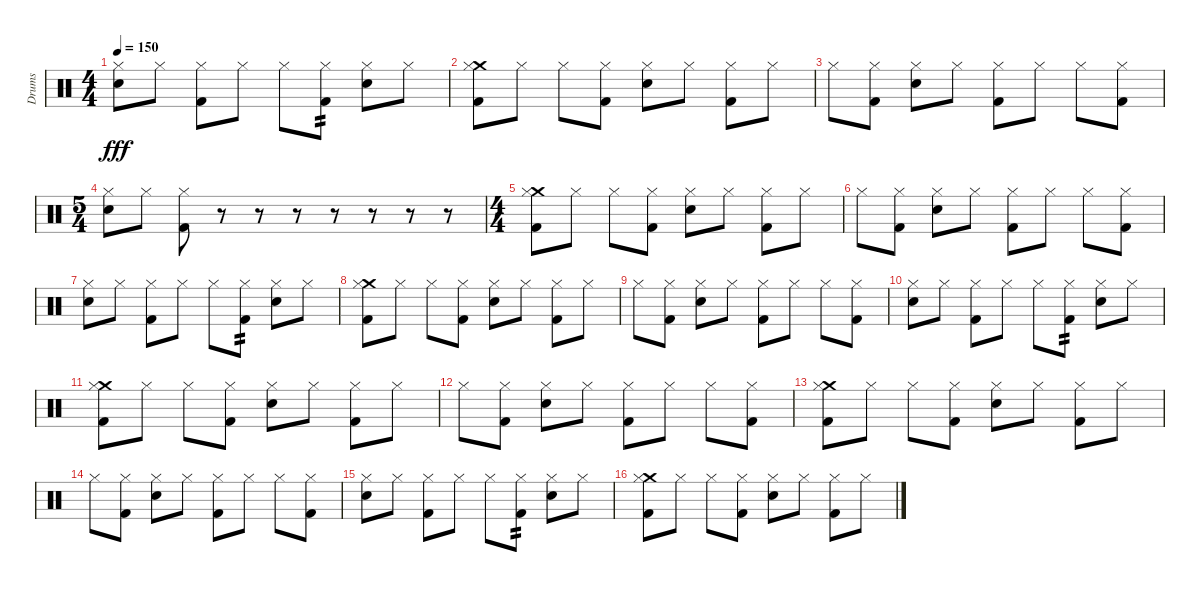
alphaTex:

\track ("Drums" "Drums") {instrument percussion}
\staff {score}
\articulation defaults
\ts (4 4)
\tempo 150
\clef neutral
\ks c
("Hi-Hat (closed)" "Electric Snare (hit)").8{dy fff} "Hi-Hat (closed)".8 ("Hi-Hat (closed)" "Kick (hit) 2").8 "Hi-Hat (closed)".8 "Hi-Hat (closed)".8 ("Hi-Hat (closed)" "Kick (hit) 2").8{tp 2} ("Hi-Hat (closed)" "Electric Snare (hit)").8 "Hi-Hat (closed)".8 |
("Crash medium (hit)" "Hi-Hat (closed)" "Kick (hit) 2").8 "Hi-Hat (closed)".8 "Hi-Hat (closed)".8 ("Hi-Hat (closed)" "Kick (hit) 2").8 ("Hi-Hat (closed)" "Electric Snare (hit)").8 "Hi-Hat (closed)".8 ("Hi-Hat (closed)" "Kick (hit) 2").8 "Hi-Hat (closed)".8 |
"Hi-Hat (closed)".8 ("Hi-Hat (closed)" "Kick (hit) 2").8 ("Hi-Hat (closed)" "Electric Snare (hit)").8 "Hi-Hat (closed)".8 ("Hi-Hat (closed)" "Kick (hit) 2").8 "Hi-Hat (closed)".8 "Hi-Hat (closed)".8 ("Hi-Hat (closed)" "Kick (hit) 2").8 |
\ts (5 4)
("Hi-Hat (closed)" "Electric Snare (hit)").8 "Hi-Hat (closed)".8 ("Hi-Hat (closed)" "Kick (hit) 2").8 r.8 r.8 r.8 r.8 r.8 r.8 r.8 |
\ts (4 4)
("Crash medium (hit)" "Hi-Hat (closed)" "Kick (hit) 2").8 "Hi-Hat (closed)".8 "Hi-Hat (closed)".8 ("Hi-Hat (closed)" "Kick (hit) 2").8 ("Hi-Hat (closed)" "Electric Snare (hit)").8 "Hi-Hat (closed)".8 ("Hi-Hat (closed)" "Kick (hit) 2").8 "Hi-Hat (closed)".8 |
"Hi-Hat (closed)".8 ("Hi-Hat (closed)" "Kick (hit) 2").8 ("Hi-Hat (closed)" "Electric Snare (hit)").8 "Hi-Hat (closed)".8 ("Hi-Hat (closed)" "Kick (hit) 2").8 "Hi-Hat (closed)".8 "Hi-Hat (closed)".8 ("Hi-Hat (closed)" "Kick (hit) 2").8 |
("Hi-Hat (closed)" "Electric Snare (hit)").8 "Hi-Hat (closed)".8 ("Hi-Hat (closed)" "Kick (hit) 2").8 "Hi-Hat (closed)".8 "Hi-Hat (closed)".8 ("Hi-Hat (closed)" "Kick (hit) 2").8{tp 2} ("Hi-Hat (closed)" "Electric Snare (hit)").8 "Hi-Hat (closed)".8 |
("Crash medium (hit)" "Hi-Hat (closed)" "Kick (hit) 2").8 "Hi-Hat (closed)".8 "Hi-Hat (closed)".8 ("Hi-Hat (closed)" "Kick (hit) 2").8 ("Hi-Hat (closed)" "Electric Snare (hit)").8 "Hi-Hat (closed)".8 ("Hi-Hat (closed)" "Kick (hit) 2").8 "Hi-Hat (closed)".8 |
"Hi-Hat (closed)".8 ("Hi-Hat (closed)" "Kick (hit) 2").8 ("Hi-Hat (closed)" "Electric Snare (hit)").8 "Hi-Hat (closed)".8 ("Hi-Hat (closed)" "Kick (hit) 2").8 "Hi-Hat (closed)".8 "Hi-Hat (closed)".8 ("Hi-Hat (closed)" "Kick (hit) 2").8 |
("Hi-Hat (closed)" "Electric Snare (hit)").8 "Hi-Hat (closed)".8 ("Hi-Hat (closed)" "Kick (hit) 2").8 "Hi-Hat (closed)".8 "Hi-Hat (closed)".8 ("Hi-Hat (closed)" "Kick (hit) 2").8{tp 2} ("Hi-Hat (closed)" "Electric Snare (hit)").8 "Hi-Hat (closed)".8 |
("Crash medium (hit)" "Hi-Hat (closed)" "Kick (hit) 2").8 "Hi-Hat (closed)".8 "Hi-Hat (closed)".8 ("Hi-Hat (closed)" "Kick (hit) 2").8 ("Hi-Hat (closed)" "Electric Snare (hit)").8 "Hi-Hat (closed)".8 ("Hi-Hat (closed)" "Kick (hit) 2").8 "Hi-Hat (closed)".8 |
"Hi-Hat (closed)".8 ("Hi-Hat (closed)" "Kick (hit) 2").8 ("Hi-Hat (closed)" "Electric Snare (hit)").8 "Hi-Hat (closed)".8 ("Hi-Hat (closed)" "Kick (hit) 2").8 "Hi-Hat (closed)".8 "Hi-Hat (closed)".8 ("Hi-Hat (closed)" "Kick (hit) 2").8 |
("Crash medium (hit)" "Hi-Hat (closed)" "Kick (hit) 2").8 "Hi-Hat (closed)".8 "Hi-Hat (closed)".8 ("Hi-Hat (closed)" "Kick (hit) 2").8 ("Hi-Hat (closed)" "Electric Snare (hit)").8 "Hi-Hat (closed)".8 ("Hi-Hat (closed)" "Kick (hit) 2").8 "Hi-Hat (closed)".8 |
"Hi-Hat (closed)".8 ("Hi-Hat (closed)" "Kick (hit) 2").8 ("Hi-Hat (closed)" "Electric Snare (hit)").8 "Hi-Hat (closed)".8 ("Hi-Hat (closed)" "Kick (hit) 2").8 "Hi-Hat (closed)".8 "Hi-Hat (closed)".8 ("Hi-Hat (closed)" "Kick (hit) 2").8 |
("Hi-Hat (closed)" "Electric Snare (hit)").8 "Hi-Hat (closed)".8 ("Hi-Hat (closed)" "Kick (hit) 2").8 "Hi-Hat (closed)".8 "Hi-Hat (closed)".8 ("Hi-Hat (closed)" "Kick (hit) 2").8{tp 2} ("Hi-Hat (closed)" "Electric Snare (hit)").8 "Hi-Hat (closed)".8 |
("Crash medium (hit)" "Hi-Hat (closed)" "Kick (hit) 2").8 "Hi-Hat (closed)".8 "Hi-Hat (closed)".8 ("Hi-Hat (closed)" "Kick (hit) 2").8 ("Hi-Hat (closed)" "Electric Snare (hit)").8 "Hi-Hat (closed)".8 ("Hi-Hat (closed)" "Kick (hit) 2").8 "Hi-Hat (closed)".8
